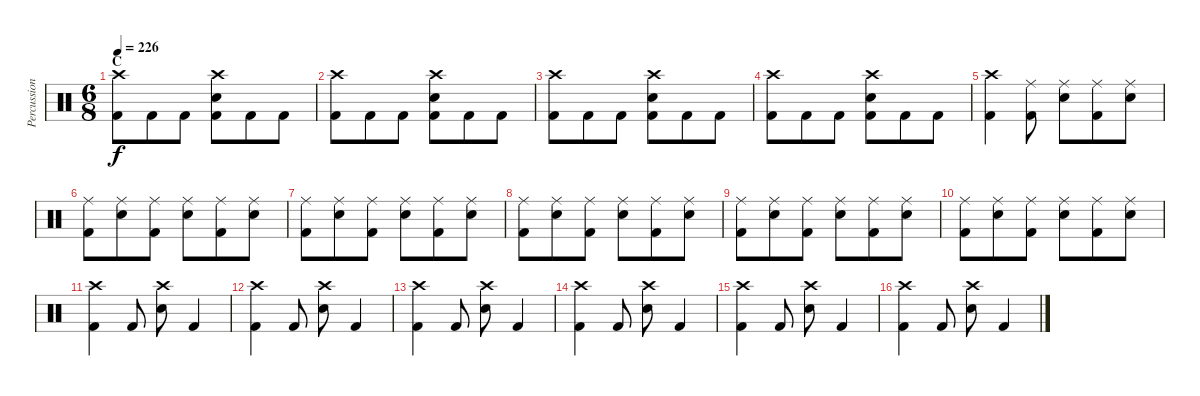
\track ("Percussion" "Percussion") {instrument percussion}
\staff {score}
\articulation defaults
\ts (6 8)
\section ("" "C")
\tempo 226
\clef neutral
\ks c
("Crash high (hit)" "Kick (hit) 2").8{dy f} "Kick (hit) 2".8 "Kick (hit) 2".8 ("Crash high (hit)" "Electric Snare (hit)" "Kick (hit) 2").8 "Kick (hit) 2".8 "Kick (hit) 2".8 |
("Crash high (hit)" "Kick (hit) 2").8 "Kick (hit) 2".8 "Kick (hit) 2".8 ("Crash high (hit)" "Electric Snare (hit)" "Kick (hit) 2").8 "Kick (hit) 2".8 "Kick (hit) 2".8 |
("Crash high (hit)" "Kick (hit) 2").8 "Kick (hit) 2".8 "Kick (hit) 2".8 ("Crash high (hit)" "Electric Snare (hit)" "Kick (hit) 2").8 "Kick (hit) 2".8 "Kick (hit) 2".8 |
("Crash high (hit)" "Kick (hit) 2").8 "Kick (hit) 2".8 "Kick (hit) 2".8 ("Crash high (hit)" "Electric Snare (hit)" "Kick (hit) 2").8 "Kick (hit) 2".8 "Kick (hit) 2".8 |
("Crash high (hit)" "Kick (hit) 2").4 ("Ride (middle)" "Kick (hit) 2").8 ("Ride (middle)" "Electric Snare (hit)").8 ("Ride (middle)" "Kick (hit) 2").8 ("Ride (middle)" "Electric Snare (hit)").8 |
("Ride (middle)" "Kick (hit) 2").8 ("Ride (middle)" "Electric Snare (hit)").8 ("Ride (middle)" "Kick (hit) 2").8 ("Ride (middle)" "Electric Snare (hit)").8 ("Ride (middle)" "Kick (hit) 2").8 ("Ride (middle)" "Electric Snare (hit)").8 |
("Ride (middle)" "Kick (hit) 2").8 ("Ride (middle)" "Electric Snare (hit)").8 ("Ride (middle)" "Kick (hit) 2").8 ("Ride (middle)" "Electric Snare (hit)").8 ("Ride (middle)" "Kick (hit) 2").8 ("Ride (middle)" "Electric Snare (hit)").8 |
("Ride (middle)" "Kick (hit) 2").8 ("Ride (middle)" "Electric Snare (hit)").8 ("Ride (middle)" "Kick (hit) 2").8 ("Ride (middle)" "Electric Snare (hit)").8 ("Ride (middle)" "Kick (hit) 2").8 ("Ride (middle)" "Electric Snare (hit)").8 |
("Ride (middle)" "Kick (hit) 2").8 ("Ride (middle)" "Electric Snare (hit)").8 ("Ride (middle)" "Kick (hit) 2").8 ("Ride (middle)" "Electric Snare (hit)").8 ("Ride (middle)" "Kick (hit) 2").8 ("Ride (middle)" "Electric Snare (hit)").8 |
("Ride (middle)" "Kick (hit) 2").8 ("Ride (middle)" "Electric Snare (hit)").8 ("Ride (middle)" "Kick (hit) 2").8 ("Ride (middle)" "Electric Snare (hit)").8 ("Ride (middle)" "Kick (hit) 2").8 ("Ride (middle)" "Electric Snare (hit)").8 |
("Crash high (hit)" "Kick (hit) 2").4 "Kick (hit) 2".8 ("Crash high (hit)" "Electric Snare (hit)").8 "Kick (hit) 2".4 |
("Crash high (hit)" "Kick (hit) 2").4 "Kick (hit) 2".8 ("Crash high (hit)" "Electric Snare (hit)").8 "Kick (hit) 2".4 |
("Crash high (hit)" "Kick (hit) 2").4 "Kick (hit) 2".8 ("Crash high (hit)" "Electric Snare (hit)").8 "Kick (hit) 2".4 |
("Crash high (hit)" "Kick (hit) 2").4 "Kick (hit) 2".8 ("Crash high (hit)" "Electric Snare (hit)").8 "Kick (hit) 2".4 |
("Crash high (hit)" "Kick (hit) 2").4 "Kick (hit) 2".8 ("Crash high (hit)" "Electric Snare (hit)").8 "Kick (hit) 2".4 |
("Crash high (hit)" "Kick (hit) 2").4 "Kick (hit) 2".8 ("Crash high (hit)" "Electric Snare (hit)").8 "Kick (hit) 2".4
